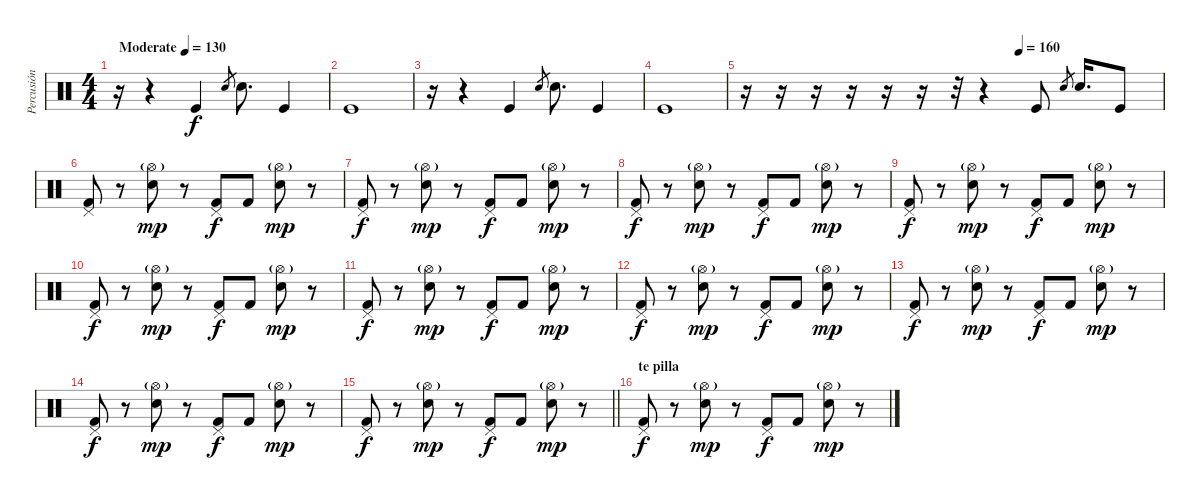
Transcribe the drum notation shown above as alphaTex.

\track ("Percusión" "Percusión") {instrument percussion}
\staff {score}
\articulation defaults
\ts (4 4)
\tempo (130 "Moderate")
\clef neutral
\ks c
r.16{dy f} r.4 "Kick (hit)".4 "Electric Snare (hit)".8{gr} "Electric Snare (hit)".8{d} "Kick (hit)".4 |
"Kick (hit)".1 |
r.16 r.4 "Kick (hit)".4 "Electric Snare (hit)".8{gr} "Electric Snare (hit)".8{d} "Kick (hit)".4 |
"Kick (hit)".1 |
\tempo (160 0.65625)
r.16 r.16 r.16 r.16 r.16 r.16 r.32 r.4 "Kick (hit)".8 "Electric Snare (hit)".8{gr} "Electric Snare (hit)".16{d} "Kick (hit)".8 |
("Pedal Hi-Hat (hit)" "Kick (hit) 2").8 r.8 ("Hi-Hat (open)"{g} "Electric Snare (hit)").8{dy mp} r.8 ("Pedal Hi-Hat (hit)" "Kick (hit) 2").8{dy f} "Kick (hit) 2".8 ("Hi-Hat (open)"{g} "Electric Snare (hit)").8{dy mp} r.8 |
("Pedal Hi-Hat (hit)" "Kick (hit) 2").8{dy f} r.8 ("Hi-Hat (open)"{g} "Electric Snare (hit)").8{dy mp} r.8 ("Pedal Hi-Hat (hit)" "Kick (hit) 2").8{dy f} "Kick (hit) 2".8 ("Hi-Hat (open)"{g} "Electric Snare (hit)").8{dy mp} r.8 |
("Pedal Hi-Hat (hit)" "Kick (hit) 2").8{dy f} r.8 ("Hi-Hat (open)"{g} "Electric Snare (hit)").8{dy mp} r.8 ("Pedal Hi-Hat (hit)" "Kick (hit) 2").8{dy f} "Kick (hit) 2".8 ("Hi-Hat (open)"{g} "Electric Snare (hit)").8{dy mp} r.8 |
("Pedal Hi-Hat (hit)" "Kick (hit) 2").8{dy f} r.8 ("Hi-Hat (open)"{g} "Electric Snare (hit)").8{dy mp} r.8 ("Pedal Hi-Hat (hit)" "Kick (hit) 2").8{dy f} "Kick (hit) 2".8 ("Hi-Hat (open)"{g} "Electric Snare (hit)").8{dy mp} r.8 |
("Pedal Hi-Hat (hit)" "Kick (hit) 2").8{dy f} r.8 ("Hi-Hat (open)"{g} "Electric Snare (hit)").8{dy mp} r.8 ("Pedal Hi-Hat (hit)" "Kick (hit) 2").8{dy f} "Kick (hit) 2".8 ("Hi-Hat (open)"{g} "Electric Snare (hit)").8{dy mp} r.8 |
("Pedal Hi-Hat (hit)" "Kick (hit) 2").8{dy f} r.8 ("Hi-Hat (open)"{g} "Electric Snare (hit)").8{dy mp} r.8 ("Pedal Hi-Hat (hit)" "Kick (hit) 2").8{dy f} "Kick (hit) 2".8 ("Hi-Hat (open)"{g} "Electric Snare (hit)").8{dy mp} r.8 |
("Pedal Hi-Hat (hit)" "Kick (hit) 2").8{dy f} r.8 ("Hi-Hat (open)"{g} "Electric Snare (hit)").8{dy mp} r.8 ("Pedal Hi-Hat (hit)" "Kick (hit) 2").8{dy f} "Kick (hit) 2".8 ("Hi-Hat (open)"{g} "Electric Snare (hit)").8{dy mp} r.8 |
("Pedal Hi-Hat (hit)" "Kick (hit) 2").8{dy f} r.8 ("Hi-Hat (open)"{g} "Electric Snare (hit)").8{dy mp} r.8 ("Pedal Hi-Hat (hit)" "Kick (hit) 2").8{dy f} "Kick (hit) 2".8 ("Hi-Hat (open)"{g} "Electric Snare (hit)").8{dy mp} r.8 |
("Pedal Hi-Hat (hit)" "Kick (hit) 2").8{dy f} r.8 ("Hi-Hat (open)"{g} "Electric Snare (hit)").8{dy mp} r.8 ("Pedal Hi-Hat (hit)" "Kick (hit) 2").8{dy f} "Kick (hit) 2".8 ("Hi-Hat (open)"{g} "Electric Snare (hit)").8{dy mp} r.8 |
\barLineRight lightlight
("Pedal Hi-Hat (hit)" "Kick (hit) 2").8{dy f} r.8 ("Hi-Hat (open)"{g} "Electric Snare (hit)").8{dy mp} r.8 ("Pedal Hi-Hat (hit)" "Kick (hit) 2").8{dy f} "Kick (hit) 2".8 ("Hi-Hat (open)"{g} "Electric Snare (hit)").8{dy mp} r.8 |
\section ("" "te pilla")
("Pedal Hi-Hat (hit)" "Kick (hit) 2").8{dy f} r.8 ("Hi-Hat (open)"{g} "Electric Snare (hit)").8{dy mp} r.8 ("Pedal Hi-Hat (hit)" "Kick (hit) 2").8{dy f} "Kick (hit) 2".8 ("Hi-Hat (open)"{g} "Electric Snare (hit)").8{dy mp} r.8
